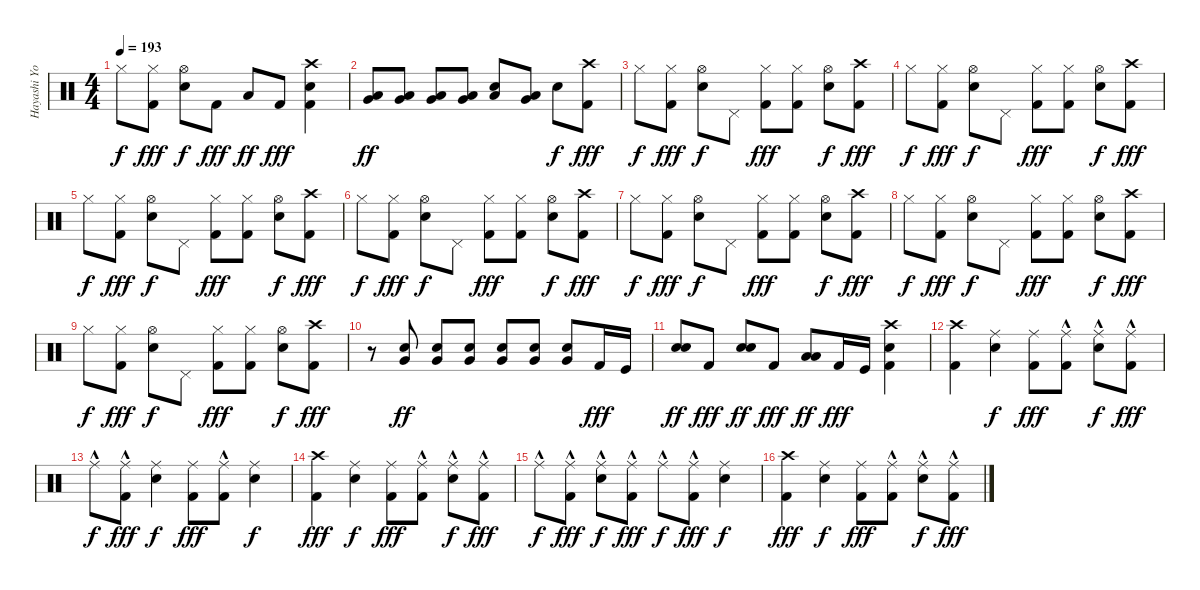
\track ("Hayashi Yoshiki(Yoshiki)" "Hayashi Yo") {instrument percussion}
\staff {score}
\articulation defaults
\ts (4 4)
\tempo 193
\clef neutral
\ks c "Hi-Hat (closed)".8{dy f}
("Hi-Hat (closed)" "Kick (hit) 2").8{dy fff} ("Hi-Hat (open)" "Electric Snare (hit)").8{dy f} "Kick (hit) 2".8{dy fff} "Low Tom (hit)".8{dy ff} "Kick (hit) 2".8{dy fff} ("Crash high (hit)" "Electric Snare (hit)" "Kick (hit) 2").4 |
("Very Low Tom (hit)" "Low Tom (hit)").8{dy ff} ("Very Low Tom (hit)" "Low Tom (hit)").8 ("Very Low Tom (hit)" "Low Tom (hit)").8 ("Very Low Tom (hit)" "Low Tom (hit)").8 ("Metronome (bell)" "Low Tom (hit)").8 ("Very Low Tom (hit)" "Low Tom (hit)").8 "Electric Snare (hit)".8{dy f} ("Crash high (hit)" "Kick (hit) 2").8{dy fff} |
"Hi-Hat (closed)".8{dy f} ("Hi-Hat (closed)" "Kick (hit) 2").8{dy fff} ("Hi-Hat (open)" "Electric Snare (hit)").8{dy f} "Pedal Hi-Hat (hit)".8 ("Hi-Hat (closed)" "Kick (hit) 2").8{dy fff} ("Hi-Hat (closed)" "Kick (hit) 2").8 ("Hi-Hat (open)" "Electric Snare (hit)").8{dy f} ("Crash high (hit)" "Kick (hit) 2").8{dy fff} |
"Hi-Hat (closed)".8{dy f} ("Hi-Hat (closed)" "Kick (hit) 2").8{dy fff} ("Hi-Hat (open)" "Electric Snare (hit)").8{dy f} "Pedal Hi-Hat (hit)".8 ("Hi-Hat (closed)" "Kick (hit) 2").8{dy fff} ("Hi-Hat (closed)" "Kick (hit) 2").8 ("Hi-Hat (open)" "Electric Snare (hit)").8{dy f} ("Crash high (hit)" "Kick (hit) 2").8{dy fff} |
"Hi-Hat (closed)".8{dy f} ("Hi-Hat (closed)" "Kick (hit) 2").8{dy fff} ("Hi-Hat (open)" "Electric Snare (hit)").8{dy f} "Pedal Hi-Hat (hit)".8 ("Hi-Hat (closed)" "Kick (hit) 2").8{dy fff} ("Hi-Hat (closed)" "Kick (hit) 2").8 ("Hi-Hat (open)" "Electric Snare (hit)").8{dy f} ("Crash high (hit)" "Kick (hit) 2").8{dy fff} |
"Hi-Hat (closed)".8{dy f} ("Hi-Hat (closed)" "Kick (hit) 2").8{dy fff} ("Hi-Hat (open)" "Electric Snare (hit)").8{dy f} "Pedal Hi-Hat (hit)".8 ("Hi-Hat (closed)" "Kick (hit) 2").8{dy fff} ("Hi-Hat (closed)" "Kick (hit) 2").8 ("Hi-Hat (open)" "Electric Snare (hit)").8{dy f} ("Crash high (hit)" "Kick (hit) 2").8{dy fff} |
"Hi-Hat (closed)".8{dy f} ("Hi-Hat (closed)" "Kick (hit) 2").8{dy fff} ("Hi-Hat (open)" "Electric Snare (hit)").8{dy f} "Pedal Hi-Hat (hit)".8 ("Hi-Hat (closed)" "Kick (hit) 2").8{dy fff} ("Hi-Hat (closed)" "Kick (hit) 2").8 ("Hi-Hat (open)" "Electric Snare (hit)").8{dy f} ("Crash high (hit)" "Kick (hit) 2").8{dy fff} |
"Hi-Hat (closed)".8{dy f} ("Hi-Hat (closed)" "Kick (hit) 2").8{dy fff} ("Hi-Hat (open)" "Electric Snare (hit)").8{dy f} "Pedal Hi-Hat (hit)".8 ("Hi-Hat (closed)" "Kick (hit) 2").8{dy fff} ("Hi-Hat (closed)" "Kick (hit) 2").8 ("Hi-Hat (open)" "Electric Snare (hit)").8{dy f} ("Crash high (hit)" "Kick (hit) 2").8{dy fff} |
"Hi-Hat (closed)".8{dy f} ("Hi-Hat (closed)" "Kick (hit) 2").8{dy fff} ("Hi-Hat (open)" "Electric Snare (hit)").8{dy f} "Pedal Hi-Hat (hit)".8 ("Hi-Hat (closed)" "Kick (hit) 2").8{dy fff} ("Hi-Hat (closed)" "Kick (hit) 2").8 ("Hi-Hat (open)" "Electric Snare (hit)").8{dy f} ("Crash high (hit)" "Kick (hit) 2").8{dy fff} |
r.8 ("Very Low Tom (hit)" "Electric Snare (hit)").8{dy ff} ("Very Low Tom (hit)" "Electric Snare (hit)").8 ("Very Low Tom (hit)" "Electric Snare (hit)").8 ("Very Low Tom (hit)" "Electric Snare (hit)").8 ("Very Low Tom (hit)" "Electric Snare (hit)").8 ("Very Low Tom (hit)" "Electric Snare (hit)").8 "Kick (hit) 2".16{dy fff} "Kick (hit)".16 |
("Electric Snare (hit)" "Electric Snare (hit)").8{dy ff} "Kick (hit) 2".8{dy fff} ("Electric Snare (hit)" "Electric Snare (hit)").8{dy ff} "Kick (hit) 2".8{dy fff} ("Low Tom (hit)" "Low Tom (hit)").8{dy ff} "Kick (hit) 2".16{dy fff} "Kick (hit)".16 ("Crash high (hit)" "Electric Snare (hit)" "Kick (hit) 2").4 |
("Crash high (hit)" "Kick (hit) 2").4 ("Ride (middle)" "Electric Snare (hit)").4{dy f} ("Ride (middle)" "Kick (hit) 2").8{dy fff} ("Ride (middle)"{hac} "Kick (hit) 2").8 ("Ride (middle)"{hac} "Electric Snare (hit)").8{dy f} ("Ride (middle)"{hac} "Kick (hit) 2").8{dy fff} |
"Ride (middle)"{hac}.8{dy f} ("Ride (middle)"{hac} "Kick (hit) 2").8{dy fff} ("Ride (middle)" "Electric Snare (hit)").4{dy f} ("Ride (middle)" "Kick (hit) 2").8{dy fff} ("Ride (middle)"{hac} "Kick (hit) 2").8 ("Ride (middle)" "Electric Snare (hit)").4{dy f} |
("Crash high (hit)" "Kick (hit) 2").4{dy fff} ("Ride (middle)" "Electric Snare (hit)").4{dy f} ("Ride (middle)" "Kick (hit) 2").8{dy fff} ("Ride (middle)"{hac} "Kick (hit) 2").8 ("Ride (middle)"{hac} "Electric Snare (hit)").8{dy f} ("Ride (middle)"{hac} "Kick (hit) 2").8{dy fff} |
"Ride (middle)"{hac}.8{dy f} ("Ride (middle)"{hac} "Kick (hit) 2").8{dy fff} ("Ride (middle)"{hac} "Electric Snare (hit)").8{dy f} ("Ride (middle)"{hac} "Kick (hit) 2").8{dy fff} "Ride (middle)"{hac}.8{dy f} ("Ride (middle)"{hac} "Kick (hit) 2").8{dy fff} ("Ride (middle)" "Electric Snare (hit)").4{dy f} |
("Crash high (hit)" "Kick (hit) 2").4{dy fff} ("Ride (middle)" "Electric Snare (hit)").4{dy f} ("Ride (middle)" "Kick (hit) 2").8{dy fff} ("Ride (middle)"{hac} "Kick (hit) 2").8 ("Ride (middle)"{hac} "Electric Snare (hit)").8{dy f} ("Ride (middle)"{hac} "Kick (hit) 2").8{dy fff}
